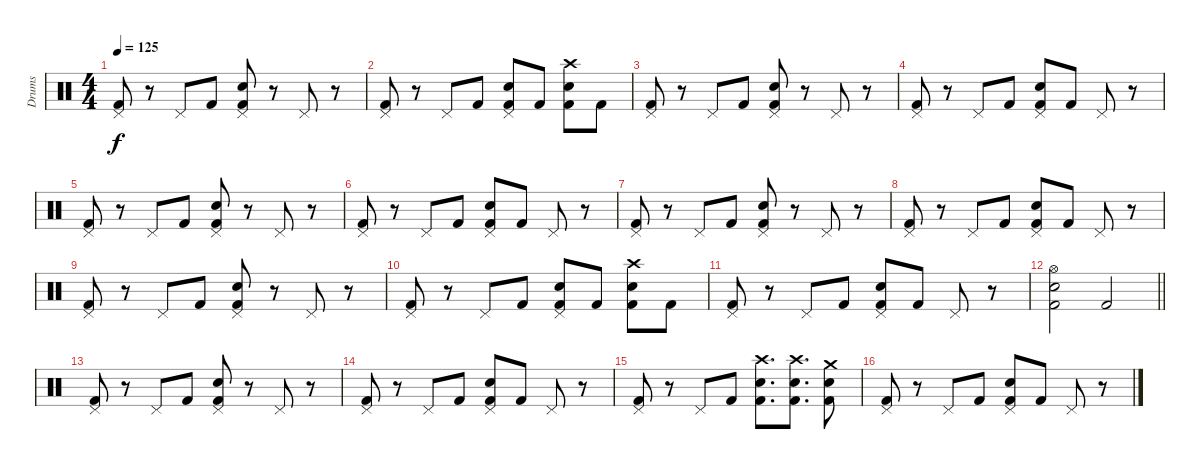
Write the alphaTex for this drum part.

\track ("Drums" "Drums") {instrument percussion}
\staff {score}
\articulation defaults
\ts (4 4)
\tempo 125
\clef neutral
\ks c
("Pedal Hi-Hat (hit)" "Kick (hit) 2").8{dy f} r.8 "Pedal Hi-Hat (hit)".8 "Kick (hit) 2".8 ("Pedal Hi-Hat (hit)" "Electric Snare (hit)" "Kick (hit) 2").8 r.8 "Pedal Hi-Hat (hit)".8 r.8 |
("Pedal Hi-Hat (hit)" "Kick (hit) 2").8 r.8 "Pedal Hi-Hat (hit)".8 "Kick (hit) 2".8 ("Pedal Hi-Hat (hit)" "Electric Snare (hit)" "Kick (hit) 2").8 "Kick (hit) 2".8 ("Crash high (hit)" "Electric Snare (hit)" "Kick (hit) 2").8 "Kick (hit) 2".8 |
("Pedal Hi-Hat (hit)" "Kick (hit) 2").8 r.8 "Pedal Hi-Hat (hit)".8 "Kick (hit) 2".8 ("Pedal Hi-Hat (hit)" "Electric Snare (hit)" "Kick (hit) 2").8 r.8 "Pedal Hi-Hat (hit)".8 r.8 |
("Pedal Hi-Hat (hit)" "Kick (hit) 2").8 r.8 "Pedal Hi-Hat (hit)".8 "Kick (hit) 2".8 ("Pedal Hi-Hat (hit)" "Electric Snare (hit)" "Kick (hit) 2").8 "Kick (hit) 2".8 "Pedal Hi-Hat (hit)".8 r.8 |
("Pedal Hi-Hat (hit)" "Kick (hit) 2").8 r.8 "Pedal Hi-Hat (hit)".8 "Kick (hit) 2".8 ("Pedal Hi-Hat (hit)" "Electric Snare (hit)" "Kick (hit) 2").8 r.8 "Pedal Hi-Hat (hit)".8 r.8 |
("Pedal Hi-Hat (hit)" "Kick (hit) 2").8 r.8 "Pedal Hi-Hat (hit)".8 "Kick (hit) 2".8 ("Pedal Hi-Hat (hit)" "Electric Snare (hit)" "Kick (hit) 2").8 "Kick (hit) 2".8 "Pedal Hi-Hat (hit)".8 r.8 |
("Pedal Hi-Hat (hit)" "Kick (hit) 2").8 r.8 "Pedal Hi-Hat (hit)".8 "Kick (hit) 2".8 ("Pedal Hi-Hat (hit)" "Electric Snare (hit)" "Kick (hit) 2").8 r.8 "Pedal Hi-Hat (hit)".8 r.8 |
("Pedal Hi-Hat (hit)" "Kick (hit) 2").8 r.8 "Pedal Hi-Hat (hit)".8 "Kick (hit) 2".8 ("Pedal Hi-Hat (hit)" "Electric Snare (hit)" "Kick (hit) 2").8 "Kick (hit) 2".8 "Pedal Hi-Hat (hit)".8 r.8 |
("Pedal Hi-Hat (hit)" "Kick (hit) 2").8 r.8 "Pedal Hi-Hat (hit)".8 "Kick (hit) 2".8 ("Pedal Hi-Hat (hit)" "Electric Snare (hit)" "Kick (hit) 2").8 r.8 "Pedal Hi-Hat (hit)".8 r.8 |
("Pedal Hi-Hat (hit)" "Kick (hit) 2").8 r.8 "Pedal Hi-Hat (hit)".8 "Kick (hit) 2".8 ("Pedal Hi-Hat (hit)" "Electric Snare (hit)" "Kick (hit) 2").8 "Kick (hit) 2".8 ("Crash high (hit)" "Electric Snare (hit)" "Kick (hit) 2").8 "Kick (hit) 2".8 |
("Pedal Hi-Hat (hit)" "Kick (hit) 2").8 r.8 "Pedal Hi-Hat (hit)".8 "Kick (hit) 2".8 ("Pedal Hi-Hat (hit)" "Electric Snare (hit)" "Kick (hit) 2").8 "Kick (hit) 2".8 "Pedal Hi-Hat (hit)".8 r.8 |
\barLineRight lightlight
("Hi-Hat (open)" "Electric Snare (hit)" "Kick (hit) 2").2 "Kick (hit) 2".2 |
("Pedal Hi-Hat (hit)" "Kick (hit) 2").8 r.8 "Pedal Hi-Hat (hit)".8 "Kick (hit) 2".8 ("Pedal Hi-Hat (hit)" "Electric Snare (hit)" "Kick (hit) 2").8 r.8 "Pedal Hi-Hat (hit)".8 r.8 |
("Pedal Hi-Hat (hit)" "Kick (hit) 2").8 r.8 "Pedal Hi-Hat (hit)".8 "Kick (hit) 2".8 ("Pedal Hi-Hat (hit)" "Electric Snare (hit)" "Kick (hit) 2").8 "Kick (hit) 2".8 "Pedal Hi-Hat (hit)".8 r.8 |
("Pedal Hi-Hat (hit)" "Kick (hit) 2").8 r.8 "Pedal Hi-Hat (hit)".8 "Kick (hit) 2".8 ("Crash high (hit)" "Electric Snare (hit)" "Kick (hit) 2").8{d} ("Crash high (hit)" "Electric Snare (hit)" "Kick (hit) 2").8{d} ("Crash medium (hit)" "Electric Snare (hit)" "Kick (hit) 2").8 |
("Pedal Hi-Hat (hit)" "Kick (hit) 2").8 r.8 "Pedal Hi-Hat (hit)".8 "Kick (hit) 2".8 ("Pedal Hi-Hat (hit)" "Electric Snare (hit)" "Kick (hit) 2").8 "Kick (hit) 2".8 "Pedal Hi-Hat (hit)".8 r.8
